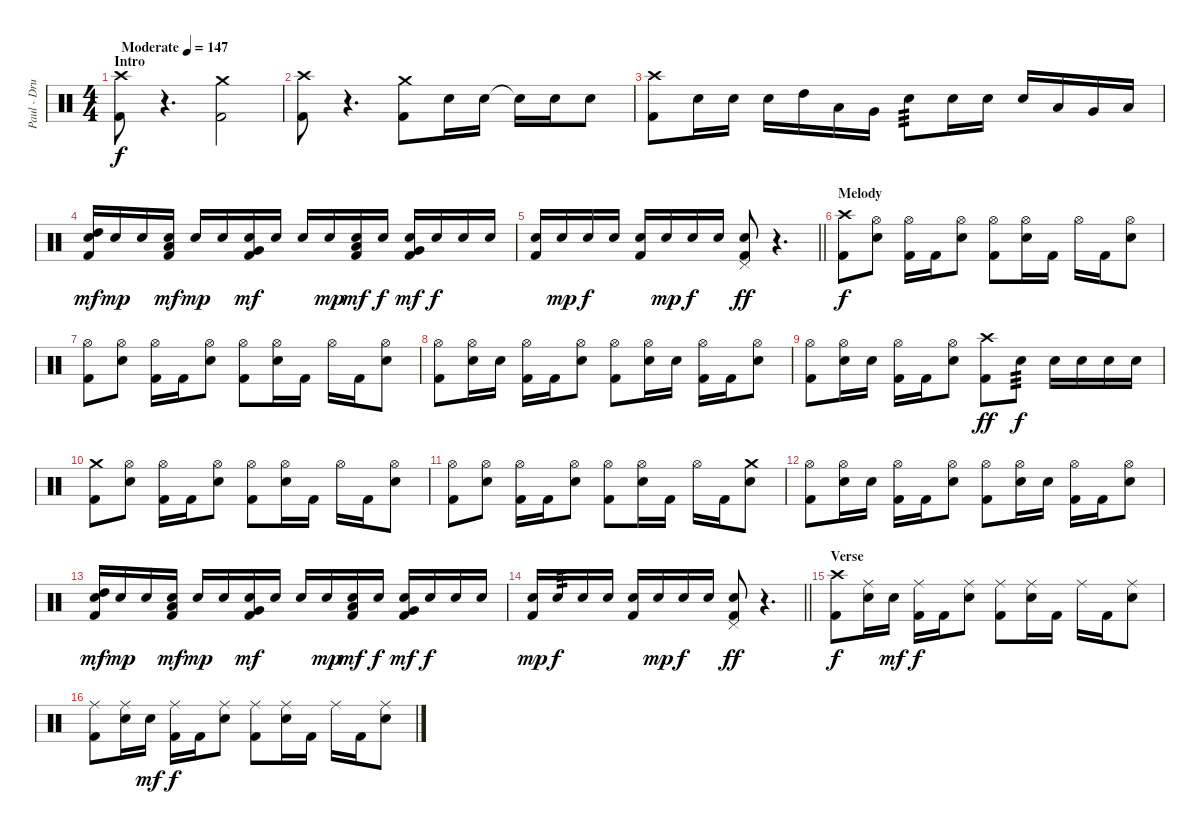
\track ("Paul - Drums" "Paul - Dru") {instrument percussion}
\staff {score}
\articulation defaults
\ts (4 4)
\section ("" "Intro")
\tempo (147 "Moderate")
\clef neutral
\ks c
("Crash high (hit)" "Kick (hit) 2").8{dy f} r.4{d volume 0} ("Crash medium (hit)" "Kick (hit) 2").2{volume 13} |
("Crash high (hit)" "Kick (hit) 2").8 r.4{d volume 0} ("Crash medium (hit)" "Kick (hit) 2").8{volume 13} "Electric Snare (hit)".16 "Electric Snare (hit)".16 "Electric Snare (hit)"{t}.16 "Electric Snare (hit)".16 "Electric Snare (hit)".8 |
("Crash high (hit)" "Kick (hit) 2").8 "Electric Snare (hit)".16 "Electric Snare (hit)".16 "Electric Snare (hit)".16 "High Tom (hit)".16 "Low Tom (hit)".16 "Very Low Tom (hit)".16 "Electric Snare (hit)".8{tp 3} "Electric Snare (hit)".16 "Electric Snare (hit)".16 "Electric Snare (hit)".16 "Low Tom (hit)".16 "Very Low Tom (hit)".16 "Low Floor Tom (hit)".16 |
("High Tom (hit)" "Electric Snare (hit)" "Kick (hit) 2").16{dy mf} "Electric Snare (hit)".16{dy mp} "Electric Snare (hit)".16 ("Low Tom (hit)" "Electric Snare (hit)" "Kick (hit) 2").16{dy mf} "Electric Snare (hit)".16{dy mp} "Electric Snare (hit)".16 ("Very Low Tom (hit)" "Electric Snare (hit)" "Kick (hit) 2").16{dy mf} "Electric Snare (hit)".16 "Electric Snare (hit)".16 "Electric Snare (hit)".16{dy mp} ("Low Tom (hit)" "Electric Snare (hit)" "Kick (hit) 2").16{dy mf} "Electric Snare (hit)".16{dy f} ("Very Low Tom (hit)" "Electric Snare (hit)" "Kick (hit) 2").16{dy mf} "Electric Snare (hit)".16{dy f} "Electric Snare (hit)".16 "Electric Snare (hit)".16 |
\barLineRight lightlight
("Electric Snare (hit)" "Kick (hit) 2").16 "Electric Snare (hit)".16{dy mp} "Electric Snare (hit)".16{dy f} "Electric Snare (hit)".16 ("Electric Snare (hit)" "Kick (hit) 2").16 "Electric Snare (hit)".16{dy mp} "Electric Snare (hit)".16{dy f} "Electric Snare (hit)".16 ("Pedal Hi-Hat (hit)" "Electric Snare (hit)" "Kick (hit) 2").8{dy ff} r.4{d} |
\section ("" "Melody")
("Crash high (hit)" "Kick (hit) 2").8{dy f} ("Hi-Hat (open)" "Electric Snare (hit)").8 ("Hi-Hat (open)" "Kick (hit) 2").16 "Kick (hit) 2".16 ("Hi-Hat (open)" "Electric Snare (hit)").8 ("Hi-Hat (open)" "Kick (hit) 2").8 ("Hi-Hat (open)" "Electric Snare (hit)").16 "Kick (hit) 2".16 "Hi-Hat (open)".16 "Kick (hit) 2".16 ("Hi-Hat (open)" "Electric Snare (hit)").8 |
("Hi-Hat (open)" "Kick (hit) 2").8 ("Hi-Hat (open)" "Electric Snare (hit)").8 ("Hi-Hat (open)" "Kick (hit) 2").16 "Kick (hit) 2".16 ("Hi-Hat (open)" "Electric Snare (hit)").8 ("Hi-Hat (open)" "Kick (hit) 2").8 ("Hi-Hat (open)" "Electric Snare (hit)").16 "Kick (hit) 2".16 "Hi-Hat (open)".16 "Kick (hit) 2".16 ("Hi-Hat (open)" "Electric Snare (hit)").8 |
("Hi-Hat (open)" "Kick (hit) 2").8 ("Hi-Hat (open)" "Electric Snare (hit)").16 "Electric Snare (hit)".16 ("Hi-Hat (open)" "Kick (hit) 2").16 "Kick (hit) 2".16 ("Hi-Hat (open)" "Electric Snare (hit)").8 ("Hi-Hat (open)" "Kick (hit) 2").8 ("Hi-Hat (open)" "Electric Snare (hit)").16 "Electric Snare (hit)".16 ("Hi-Hat (open)" "Kick (hit) 2").16 "Kick (hit) 2".16 ("Hi-Hat (open)" "Electric Snare (hit)").8 |
("Hi-Hat (open)" "Kick (hit) 2").8 ("Hi-Hat (open)" "Electric Snare (hit)").16 "Electric Snare (hit)".16 ("Hi-Hat (open)" "Kick (hit) 2").16 "Kick (hit) 2".16 ("Hi-Hat (open)" "Electric Snare (hit)").8 ("Crash high (hit)" "Kick (hit) 2").8{dy ff} "Electric Snare (hit)".8{tp 3 dy f} "Electric Snare (hit)".16 "Electric Snare (hit)".16 "Electric Snare (hit)".16 "Electric Snare (hit)".16 |
("Crash medium (hit)" "Kick (hit) 2").8 ("Hi-Hat (open)" "Electric Snare (hit)").8 ("Hi-Hat (open)" "Kick (hit) 2").16 "Kick (hit) 2".16 ("Hi-Hat (open)" "Electric Snare (hit)").8 ("Hi-Hat (open)" "Kick (hit) 2").8 ("Hi-Hat (open)" "Electric Snare (hit)").16 "Kick (hit) 2".16 "Hi-Hat (open)".16 "Kick (hit) 2".16 ("Hi-Hat (open)" "Electric Snare (hit)").8 |
("Hi-Hat (open)" "Kick (hit) 2").8 ("Hi-Hat (open)" "Electric Snare (hit)").8 ("Hi-Hat (open)" "Kick (hit) 2").16 "Kick (hit) 2".16 ("Hi-Hat (open)" "Electric Snare (hit)").8 ("Hi-Hat (open)" "Kick (hit) 2").8 ("Hi-Hat (open)" "Electric Snare (hit)").16 "Kick (hit) 2".16 "Hi-Hat (open)".16 "Kick (hit) 2".16 ("Crash medium (hit)" "Electric Snare (hit)").8 |
("Hi-Hat (open)" "Kick (hit) 2").8 ("Hi-Hat (open)" "Electric Snare (hit)").16 "Electric Snare (hit)".16 ("Hi-Hat (open)" "Kick (hit) 2").16 "Kick (hit) 2".16 ("Hi-Hat (open)" "Electric Snare (hit)").8 ("Hi-Hat (open)" "Kick (hit) 2").8 ("Hi-Hat (open)" "Electric Snare (hit)").16 "Electric Snare (hit)".16 ("Hi-Hat (open)" "Kick (hit) 2").16 "Kick (hit) 2".16 ("Hi-Hat (open)" "Electric Snare (hit)").8 |
("High Tom (hit)" "Electric Snare (hit)" "Kick (hit) 2").16{dy mf} "Electric Snare (hit)".16{dy mp} "Electric Snare (hit)".16 ("Low Tom (hit)" "Electric Snare (hit)" "Kick (hit) 2").16{dy mf} "Electric Snare (hit)".16{dy mp} "Electric Snare (hit)".16 ("Very Low Tom (hit)" "Electric Snare (hit)" "Kick (hit) 2").16{dy mf} "Electric Snare (hit)".16 "Electric Snare (hit)".16 "Electric Snare (hit)".16{dy mp} ("Low Tom (hit)" "Electric Snare (hit)" "Kick (hit) 2").16{dy mf} "Electric Snare (hit)".16{dy f} ("Very Low Tom (hit)" "Electric Snare (hit)" "Kick (hit) 2").16{dy mf} "Electric Snare (hit)".16{dy f} "Electric Snare (hit)".16 "Electric Snare (hit)".16 |
\barLineRight lightlight
("Electric Snare (hit)" "Kick (hit) 2").16{dy mp} "Electric Snare (hit)".16{tp 3 dy f} "Electric Snare (hit)".16 "Electric Snare (hit)".16 ("Electric Snare (hit)" "Kick (hit) 2").16 "Electric Snare (hit)".16{dy mp} "Electric Snare (hit)".16{dy f} "Electric Snare (hit)".16 ("Pedal Hi-Hat (hit)" "Electric Snare (hit)" "Kick (hit) 2").8{dy ff} r.4{d} |
\section ("" "Verse")
("Crash high (hit)" "Kick (hit) 2").8{dy f} ("Ride (middle)" "Electric Snare (hit)").16 "Electric Snare (hit)".16{dy mf} ("Ride (middle)" "Kick (hit) 2").16{dy f} "Kick (hit) 2".16 ("Ride (middle)" "Electric Snare (hit)").8 ("Ride (middle)" "Kick (hit) 2").8 ("Ride (middle)" "Electric Snare (hit)").16 "Kick (hit) 2".16 "Ride (middle)".16 "Kick (hit) 2".16 ("Ride (middle)" "Electric Snare (hit)").8 |
("Ride (middle)" "Kick (hit) 2").8 ("Ride (middle)" "Electric Snare (hit)").16 "Electric Snare (hit)".16{dy mf} ("Ride (middle)" "Kick (hit) 2").16{dy f} "Kick (hit) 2".16 ("Ride (middle)" "Electric Snare (hit)").8 ("Ride (middle)" "Kick (hit) 2").8 ("Ride (middle)" "Electric Snare (hit)").16 "Kick (hit) 2".16 "Ride (middle)".16 "Kick (hit) 2".16 ("Ride (middle)" "Electric Snare (hit)").8
